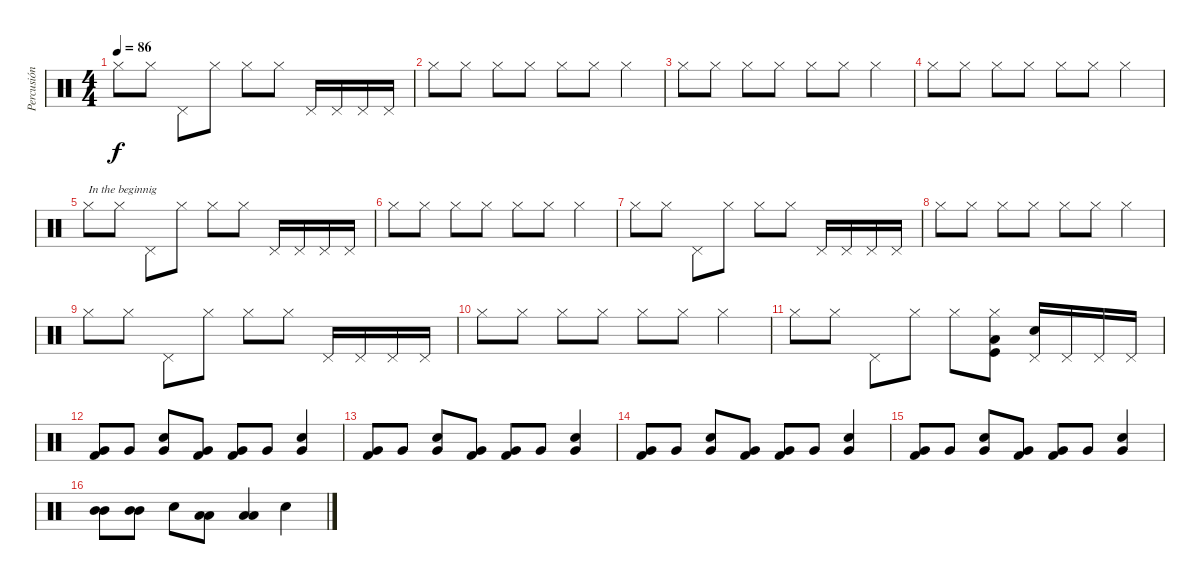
\track ("Percusión" "Percusión") {instrument percussion}
\staff {score}
\articulation defaults
\ts (4 4)
\tempo 86
\clef neutral
\ks c "Hi-Hat (closed)".8{dy f} "Hi-Hat (closed)".8 "Pedal Hi-Hat (hit)".8 "Hi-Hat (closed)".8 "Hi-Hat (closed)".8 "Hi-Hat (closed)".8 "Pedal Hi-Hat (hit)".16 "Pedal Hi-Hat (hit)".16 "Pedal Hi-Hat (hit)".16 "Pedal Hi-Hat (hit)".16
|
"Hi-Hat (closed)".8 "Hi-Hat (closed)".8 "Hi-Hat (closed)".8 "Hi-Hat (closed)".8 "Hi-Hat (closed)".8 "Hi-Hat (closed)".8 "Hi-Hat (closed)".4 |
"Hi-Hat (closed)".8 "Hi-Hat (closed)".8 "Hi-Hat (closed)".8 "Hi-Hat (closed)".8 "Hi-Hat (closed)".8 "Hi-Hat (closed)".8 "Hi-Hat (closed)".4 |
"Hi-Hat (closed)".8 "Hi-Hat (closed)".8 "Hi-Hat (closed)".8 "Hi-Hat (closed)".8 "Hi-Hat (closed)".8 "Hi-Hat (closed)".8 "Hi-Hat (closed)".4 |
"Hi-Hat (closed)".8{txt "In the beginnig"} "Hi-Hat (closed)".8 "Pedal Hi-Hat (hit)".8 "Hi-Hat (closed)".8 "Hi-Hat (closed)".8 "Hi-Hat (closed)".8 "Pedal Hi-Hat (hit)".16 "Pedal Hi-Hat (hit)".16 "Pedal Hi-Hat (hit)".16 "Pedal Hi-Hat (hit)".16 |
"Hi-Hat (closed)".8 "Hi-Hat (closed)".8 "Hi-Hat (closed)".8 "Hi-Hat (closed)".8 "Hi-Hat (closed)".8 "Hi-Hat (closed)".8 "Hi-Hat (closed)".4 |
"Hi-Hat (closed)".8 "Hi-Hat (closed)".8 "Pedal Hi-Hat (hit)".8 "Hi-Hat (closed)".8 "Hi-Hat (closed)".8 "Hi-Hat (closed)".8 "Pedal Hi-Hat (hit)".16 "Pedal Hi-Hat (hit)".16 "Pedal Hi-Hat (hit)".16 "Pedal Hi-Hat (hit)".16 |
"Hi-Hat (closed)".8 "Hi-Hat (closed)".8 "Hi-Hat (closed)".8 "Hi-Hat (closed)".8 "Hi-Hat (closed)".8 "Hi-Hat (closed)".8 "Hi-Hat (closed)".4 |
"Hi-Hat (closed)".8 "Hi-Hat (closed)".8 "Pedal Hi-Hat (hit)".8 "Hi-Hat (closed)".8 "Hi-Hat (closed)".8 "Hi-Hat (closed)".8 "Pedal Hi-Hat (hit)".16 "Pedal Hi-Hat (hit)".16 "Pedal Hi-Hat (hit)".16 "Pedal Hi-Hat (hit)".16 |
"Hi-Hat (closed)".8 "Hi-Hat (closed)".8 "Hi-Hat (closed)".8 "Hi-Hat (closed)".8 "Hi-Hat (closed)".8 "Hi-Hat (closed)".8 "Hi-Hat (closed)".4 |
"Hi-Hat (closed)".8 "Hi-Hat (closed)".8 "Pedal Hi-Hat (hit)".8 "Hi-Hat (closed)".8 "Hi-Hat (closed)".8 ("Hi-Hat (closed)" "Low Floor Tom (hit)" "Kick (hit)").8 ("Pedal Hi-Hat (hit)" "Electric Snare (hit)").16 "Pedal Hi-Hat (hit)".16 "Pedal Hi-Hat (hit)".16 "Pedal Hi-Hat (hit)".16 |
("Very Low Tom (hit)" "Kick (hit) 2").8 "Very Low Tom (hit)".8 ("Very Low Tom (hit)" "Electric Snare (hit)").8 ("Very Low Tom (hit)" "Kick (hit) 2").8 ("Very Low Tom (hit)" "Kick (hit) 2").8 "Very Low Tom (hit)".8 ("Very Low Tom (hit)" "Electric Snare (hit)").4 |
("Very Low Tom (hit)" "Kick (hit) 2").8 "Very Low Tom (hit)".8 ("Very Low Tom (hit)" "Electric Snare (hit)").8 ("Very Low Tom (hit)" "Kick (hit) 2").8 ("Very Low Tom (hit)" "Kick (hit) 2").8 "Very Low Tom (hit)".8 ("Very Low Tom (hit)" "Electric Snare (hit)").4 |
("Very Low Tom (hit)" "Kick (hit) 2").8 "Very Low Tom (hit)".8 ("Very Low Tom (hit)" "Electric Snare (hit)").8 ("Very Low Tom (hit)" "Kick (hit) 2").8 ("Very Low Tom (hit)" "Kick (hit) 2").8 "Very Low Tom (hit)".8 ("Very Low Tom (hit)" "Electric Snare (hit)").4 |
("Very Low Tom (hit)" "Kick (hit) 2").8 "Very Low Tom (hit)".8 ("Very Low Tom (hit)" "Electric Snare (hit)").8 ("Very Low Tom (hit)" "Kick (hit) 2").8 ("Very Low Tom (hit)" "Kick (hit) 2").8 "Very Low Tom (hit)".8 ("Very Low Tom (hit)" "Electric Snare (hit)").4 |
("Mid Tom (hit)" "Mid Tom (hit)").8 ("Mid Tom (hit)" "Mid Tom (hit)").8 "Electric Snare (hit)".8 ("Low Tom (hit)" "Low Tom (hit)").8 ("Low Tom (hit)" "Low Tom (hit)").4 "Electric Snare (hit)".4
